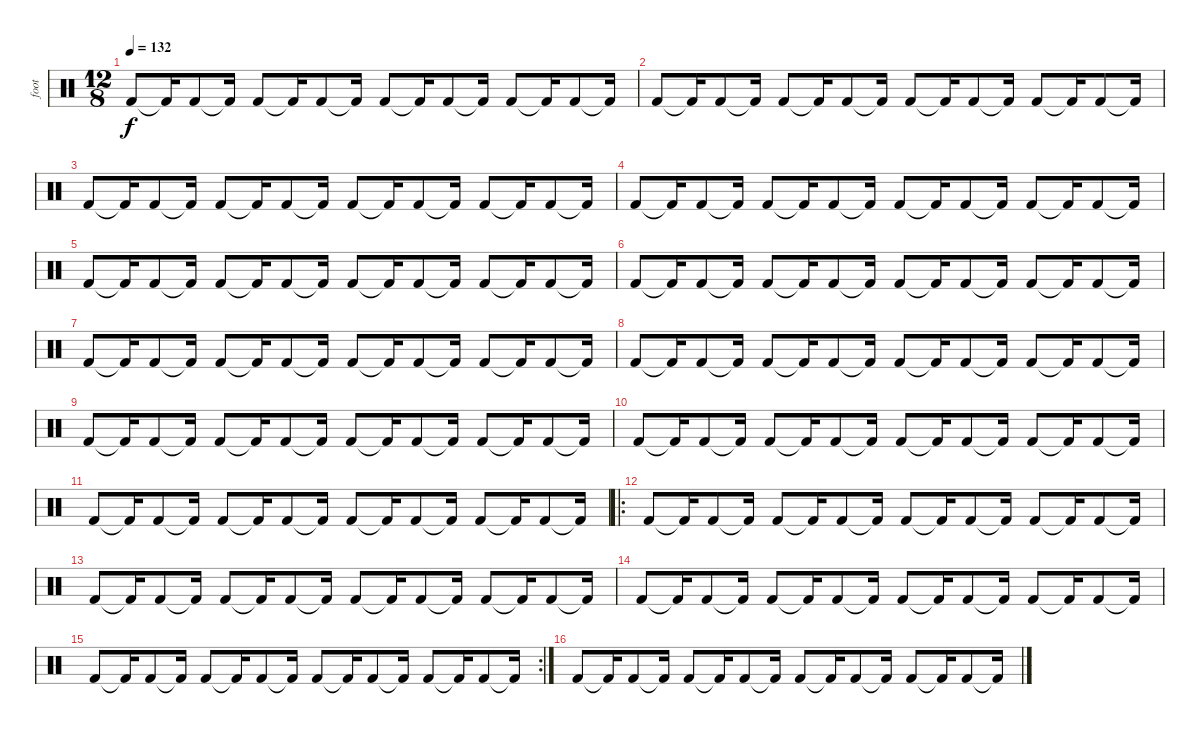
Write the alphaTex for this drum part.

\track ("foot" "foot") {instrument percussion}
\staff {score}
\articulation defaults
\ts (12 8)
\tempo 132
\clef neutral
\ks c "Kick (hit) 2".8{dy f} "Kick (hit) 2"{t}.16 "Kick (hit) 2".8 "Kick (hit) 2"{t}.16 "Kick (hit) 2".8 "Kick (hit) 2"{t}.16 "Kick (hit) 2".8 "Kick (hit) 2"{t}.16 "Kick (hit) 2".8 "Kick (hit) 2"{t}.16 "Kick (hit) 2".8 "Kick (hit) 2"{t}.16 "Kick (hit) 2".8 "Kick (hit) 2"{t}.16 "Kick (hit) 2".8 "Kick (hit) 2"{t}.16
|
"Kick (hit) 2".8 "Kick (hit) 2"{t}.16 "Kick (hit) 2".8 "Kick (hit) 2"{t}.16 "Kick (hit) 2".8 "Kick (hit) 2"{t}.16 "Kick (hit) 2".8 "Kick (hit) 2"{t}.16 "Kick (hit) 2".8 "Kick (hit) 2"{t}.16 "Kick (hit) 2".8 "Kick (hit) 2"{t}.16 "Kick (hit) 2".8 "Kick (hit) 2"{t}.16 "Kick (hit) 2".8 "Kick (hit) 2"{t}.16 |
"Kick (hit) 2".8 "Kick (hit) 2"{t}.16 "Kick (hit) 2".8 "Kick (hit) 2"{t}.16 "Kick (hit) 2".8 "Kick (hit) 2"{t}.16 "Kick (hit) 2".8 "Kick (hit) 2"{t}.16 "Kick (hit) 2".8 "Kick (hit) 2"{t}.16 "Kick (hit) 2".8 "Kick (hit) 2"{t}.16 "Kick (hit) 2".8 "Kick (hit) 2"{t}.16 "Kick (hit) 2".8 "Kick (hit) 2"{t}.16 |
"Kick (hit) 2".8 "Kick (hit) 2"{t}.16 "Kick (hit) 2".8 "Kick (hit) 2"{t}.16 "Kick (hit) 2".8 "Kick (hit) 2"{t}.16 "Kick (hit) 2".8 "Kick (hit) 2"{t}.16 "Kick (hit) 2".8 "Kick (hit) 2"{t}.16 "Kick (hit) 2".8 "Kick (hit) 2"{t}.16 "Kick (hit) 2".8 "Kick (hit) 2"{t}.16 "Kick (hit) 2".8 "Kick (hit) 2"{t}.16 |
"Kick (hit) 2".8 "Kick (hit) 2"{t}.16 "Kick (hit) 2".8 "Kick (hit) 2"{t}.16 "Kick (hit) 2".8 "Kick (hit) 2"{t}.16 "Kick (hit) 2".8 "Kick (hit) 2"{t}.16 "Kick (hit) 2".8 "Kick (hit) 2"{t}.16 "Kick (hit) 2".8 "Kick (hit) 2"{t}.16 "Kick (hit) 2".8 "Kick (hit) 2"{t}.16 "Kick (hit) 2".8 "Kick (hit) 2"{t}.16 |
"Kick (hit) 2".8 "Kick (hit) 2"{t}.16 "Kick (hit) 2".8 "Kick (hit) 2"{t}.16 "Kick (hit) 2".8 "Kick (hit) 2"{t}.16 "Kick (hit) 2".8 "Kick (hit) 2"{t}.16 "Kick (hit) 2".8 "Kick (hit) 2"{t}.16 "Kick (hit) 2".8 "Kick (hit) 2"{t}.16 "Kick (hit) 2".8 "Kick (hit) 2"{t}.16 "Kick (hit) 2".8 "Kick (hit) 2"{t}.16 |
"Kick (hit) 2".8 "Kick (hit) 2"{t}.16 "Kick (hit) 2".8 "Kick (hit) 2"{t}.16 "Kick (hit) 2".8 "Kick (hit) 2"{t}.16 "Kick (hit) 2".8 "Kick (hit) 2"{t}.16 "Kick (hit) 2".8 "Kick (hit) 2"{t}.16 "Kick (hit) 2".8 "Kick (hit) 2"{t}.16 "Kick (hit) 2".8 "Kick (hit) 2"{t}.16 "Kick (hit) 2".8 "Kick (hit) 2"{t}.16 |
"Kick (hit) 2".8 "Kick (hit) 2"{t}.16 "Kick (hit) 2".8 "Kick (hit) 2"{t}.16 "Kick (hit) 2".8 "Kick (hit) 2"{t}.16 "Kick (hit) 2".8 "Kick (hit) 2"{t}.16 "Kick (hit) 2".8 "Kick (hit) 2"{t}.16 "Kick (hit) 2".8 "Kick (hit) 2"{t}.16 "Kick (hit) 2".8 "Kick (hit) 2"{t}.16 "Kick (hit) 2".8 "Kick (hit) 2"{t}.16 |
"Kick (hit) 2".8 "Kick (hit) 2"{t}.16 "Kick (hit) 2".8 "Kick (hit) 2"{t}.16 "Kick (hit) 2".8 "Kick (hit) 2"{t}.16 "Kick (hit) 2".8 "Kick (hit) 2"{t}.16 "Kick (hit) 2".8 "Kick (hit) 2"{t}.16 "Kick (hit) 2".8 "Kick (hit) 2"{t}.16 "Kick (hit) 2".8 "Kick (hit) 2"{t}.16 "Kick (hit) 2".8 "Kick (hit) 2"{t}.16 |
"Kick (hit) 2".8 "Kick (hit) 2"{t}.16 "Kick (hit) 2".8 "Kick (hit) 2"{t}.16 "Kick (hit) 2".8 "Kick (hit) 2"{t}.16 "Kick (hit) 2".8 "Kick (hit) 2"{t}.16 "Kick (hit) 2".8 "Kick (hit) 2"{t}.16 "Kick (hit) 2".8 "Kick (hit) 2"{t}.16 "Kick (hit) 2".8 "Kick (hit) 2"{t}.16 "Kick (hit) 2".8 "Kick (hit) 2"{t}.16 |
"Kick (hit) 2".8 "Kick (hit) 2"{t}.16 "Kick (hit) 2".8 "Kick (hit) 2"{t}.16 "Kick (hit) 2".8 "Kick (hit) 2"{t}.16 "Kick (hit) 2".8 "Kick (hit) 2"{t}.16 "Kick (hit) 2".8 "Kick (hit) 2"{t}.16 "Kick (hit) 2".8 "Kick (hit) 2"{t}.16 "Kick (hit) 2".8 "Kick (hit) 2"{t}.16 "Kick (hit) 2".8 "Kick (hit) 2"{t}.16 |
\ro "Kick (hit) 2".8 "Kick (hit) 2"{t}.16 "Kick (hit) 2".8 "Kick (hit) 2"{t}.16 "Kick (hit) 2".8 "Kick (hit) 2"{t}.16 "Kick (hit) 2".8 "Kick (hit) 2"{t}.16 "Kick (hit) 2".8 "Kick (hit) 2"{t}.16 "Kick (hit) 2".8 "Kick (hit) 2"{t}.16 "Kick (hit) 2".8 "Kick (hit) 2"{t}.16 "Kick (hit) 2".8 "Kick (hit) 2"{t}.16
|
"Kick (hit) 2".8 "Kick (hit) 2"{t}.16 "Kick (hit) 2".8 "Kick (hit) 2"{t}.16 "Kick (hit) 2".8 "Kick (hit) 2"{t}.16 "Kick (hit) 2".8 "Kick (hit) 2"{t}.16 "Kick (hit) 2".8 "Kick (hit) 2"{t}.16 "Kick (hit) 2".8 "Kick (hit) 2"{t}.16 "Kick (hit) 2".8 "Kick (hit) 2"{t}.16 "Kick (hit) 2".8 "Kick (hit) 2"{t}.16 |
"Kick (hit) 2".8 "Kick (hit) 2"{t}.16 "Kick (hit) 2".8 "Kick (hit) 2"{t}.16 "Kick (hit) 2".8 "Kick (hit) 2"{t}.16 "Kick (hit) 2".8 "Kick (hit) 2"{t}.16 "Kick (hit) 2".8 "Kick (hit) 2"{t}.16 "Kick (hit) 2".8 "Kick (hit) 2"{t}.16 "Kick (hit) 2".8 "Kick (hit) 2"{t}.16 "Kick (hit) 2".8 "Kick (hit) 2"{t}.16 |
\rc 2 "Kick (hit) 2".8 "Kick (hit) 2"{t}.16 "Kick (hit) 2".8 "Kick (hit) 2"{t}.16 "Kick (hit) 2".8 "Kick (hit) 2"{t}.16 "Kick (hit) 2".8 "Kick (hit) 2"{t}.16 "Kick (hit) 2".8 "Kick (hit) 2"{t}.16 "Kick (hit) 2".8 "Kick (hit) 2"{t}.16 "Kick (hit) 2".8 "Kick (hit) 2"{t}.16 "Kick (hit) 2".8 "Kick (hit) 2"{t}.16
|
"Kick (hit) 2".8 "Kick (hit) 2"{t}.16 "Kick (hit) 2".8 "Kick (hit) 2"{t}.16 "Kick (hit) 2".8 "Kick (hit) 2"{t}.16 "Kick (hit) 2".8 "Kick (hit) 2"{t}.16 "Kick (hit) 2".8 "Kick (hit) 2"{t}.16 "Kick (hit) 2".8 "Kick (hit) 2"{t}.16 "Kick (hit) 2".8 "Kick (hit) 2"{t}.16 "Kick (hit) 2".8 "Kick (hit) 2"{t}.16
